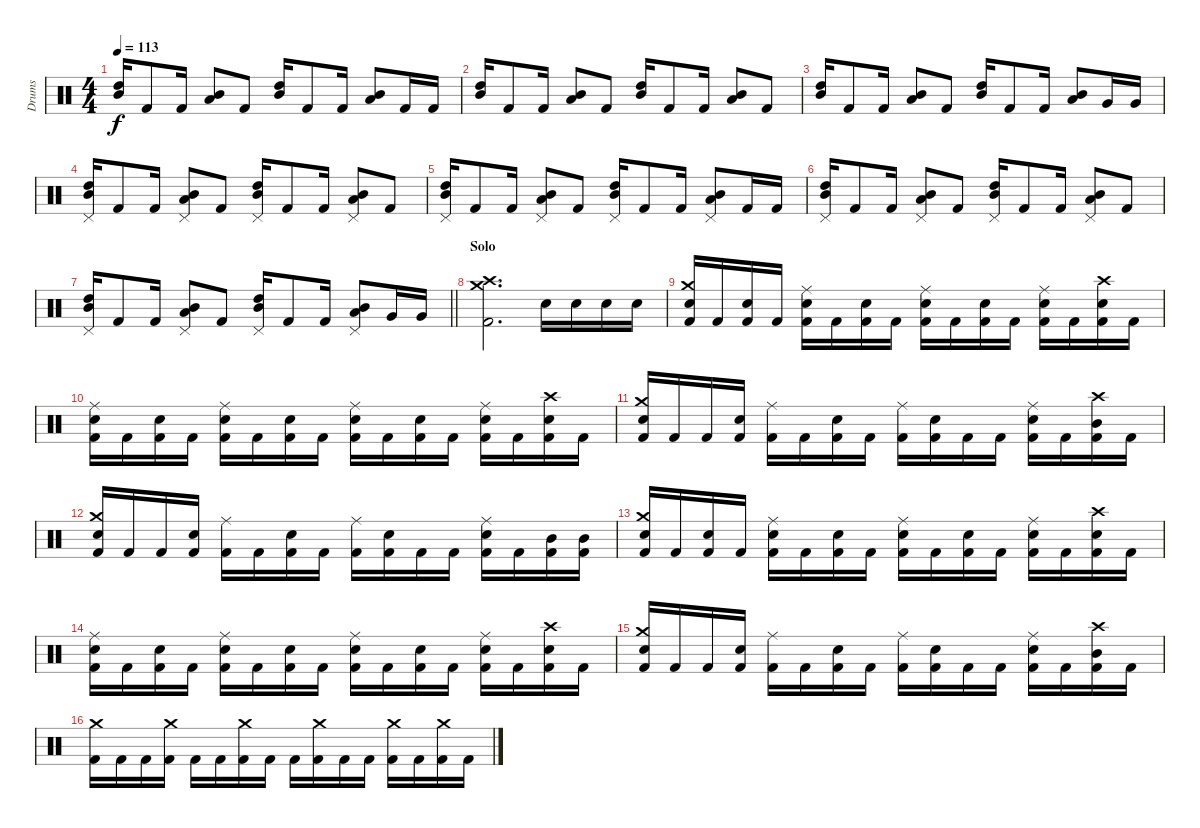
\track ("Drums" "Drums") {instrument percussion}
\staff {score}
\articulation defaults
\ts (4 4)
\tempo 113
\clef neutral
\ks c
("High Tom (hit)" "Mid Tom (hit)").16{dy f} "Kick (hit) 2".8 "Kick (hit) 2".16 ("Mid Tom (hit)" "Low Tom (hit)").8 "Kick (hit) 2".8 ("High Tom (hit)" "Mid Tom (hit)").16 "Kick (hit) 2".8 "Kick (hit) 2".16 ("Mid Tom (hit)" "Low Tom (hit)").8 "Kick (hit) 2".16 "Kick (hit) 2".16 |
("High Tom (hit)" "Mid Tom (hit)").16 "Kick (hit) 2".8 "Kick (hit) 2".16 ("Mid Tom (hit)" "Low Tom (hit)").8 "Kick (hit) 2".8 ("High Tom (hit)" "Mid Tom (hit)").16 "Kick (hit) 2".8 "Kick (hit) 2".16 ("Mid Tom (hit)" "Low Tom (hit)").8 "Kick (hit) 2".8 |
("High Tom (hit)" "Mid Tom (hit)").16 "Kick (hit) 2".8 "Kick (hit) 2".16 ("Mid Tom (hit)" "Low Tom (hit)").8 "Kick (hit) 2".8 ("High Tom (hit)" "Mid Tom (hit)").16 "Kick (hit) 2".8 "Kick (hit) 2".16 ("Mid Tom (hit)" "Low Tom (hit)").8 "Very Low Tom (hit)".16 "Very Low Tom (hit)".16 |
("High Tom (hit)" "Mid Tom (hit)" "Pedal Hi-Hat (hit)").16 "Kick (hit) 2".8 "Kick (hit) 2".16 ("Mid Tom (hit)" "Low Tom (hit)" "Pedal Hi-Hat (hit)").8 "Kick (hit) 2".8 ("High Tom (hit)" "Mid Tom (hit)" "Pedal Hi-Hat (hit)").16 "Kick (hit) 2".8 "Kick (hit) 2".16 ("Mid Tom (hit)" "Low Tom (hit)" "Pedal Hi-Hat (hit)").8 "Kick (hit) 2".8 |
("High Tom (hit)" "Mid Tom (hit)" "Pedal Hi-Hat (hit)").16 "Kick (hit) 2".8 "Kick (hit) 2".16 ("Mid Tom (hit)" "Low Tom (hit)" "Pedal Hi-Hat (hit)").8 "Kick (hit) 2".8 ("High Tom (hit)" "Mid Tom (hit)" "Pedal Hi-Hat (hit)").16 "Kick (hit) 2".8 "Kick (hit) 2".16 ("Mid Tom (hit)" "Low Tom (hit)" "Pedal Hi-Hat (hit)").8 "Kick (hit) 2".16 "Kick (hit) 2".16 |
("High Tom (hit)" "Mid Tom (hit)" "Pedal Hi-Hat (hit)").16 "Kick (hit) 2".8 "Kick (hit) 2".16 ("Mid Tom (hit)" "Low Tom (hit)" "Pedal Hi-Hat (hit)").8 "Kick (hit) 2".8 ("High Tom (hit)" "Mid Tom (hit)" "Pedal Hi-Hat (hit)").16 "Kick (hit) 2".8 "Kick (hit) 2".16 ("Mid Tom (hit)" "Low Tom (hit)" "Pedal Hi-Hat (hit)").8 "Kick (hit) 2".8 |
\barLineRight lightlight
("High Tom (hit)" "Mid Tom (hit)" "Pedal Hi-Hat (hit)").16 "Kick (hit) 2".8 "Kick (hit) 2".16 ("Mid Tom (hit)" "Low Tom (hit)" "Pedal Hi-Hat (hit)").8 "Kick (hit) 2".8 ("High Tom (hit)" "Mid Tom (hit)" "Pedal Hi-Hat (hit)").16 "Kick (hit) 2".8 "Kick (hit) 2".16 ("Mid Tom (hit)" "Low Tom (hit)" "Pedal Hi-Hat (hit)").8 "Very Low Tom (hit)".16 "Very Low Tom (hit)".16 |
\section ("" "Solo")
("Kick (hit) 2" "Crash high (hit)" "Crash medium (hit)").2{d} "Snare (hit) 2".16 "Snare (hit) 2".16 "Snare (hit) 2".16 "Snare (hit) 2".16 |
("Kick (hit) 2" "Snare (hit) 2" "Crash medium (hit)").16 "Kick (hit) 2".16 ("Kick (hit) 2" "Snare (hit) 2").16 "Kick (hit) 2".16 ("Kick (hit) 2" "Snare (hit) 2" "Ride (middle)").16 "Kick (hit) 2".16 ("Kick (hit) 2" "Snare (hit) 2").16 "Kick (hit) 2".16 ("Kick (hit) 2" "Snare (hit) 2" "Ride (middle)").16 "Kick (hit) 2".16 ("Kick (hit) 2" "Snare (hit) 2").16 "Kick (hit) 2".16 ("Kick (hit) 2" "Snare (hit) 2" "Ride (middle)").16 "Kick (hit) 2".16 ("Kick (hit) 2" "Snare (hit) 2" "Crash high (hit)").16 "Kick (hit) 2".16 |
("Kick (hit) 2" "Snare (hit) 2" "Ride (middle)").16 "Kick (hit) 2".16 ("Kick (hit) 2" "Snare (hit) 2").16 "Kick (hit) 2".16 ("Kick (hit) 2" "Snare (hit) 2" "Ride (middle)").16 "Kick (hit) 2".16 ("Kick (hit) 2" "Snare (hit) 2").16 "Kick (hit) 2".16 ("Kick (hit) 2" "Snare (hit) 2" "Ride (middle)").16 "Kick (hit) 2".16 ("Kick (hit) 2" "Snare (hit) 2").16 "Kick (hit) 2".16 ("Kick (hit) 2" "Snare (hit) 2" "Ride (middle)").16 "Kick (hit) 2".16 ("Kick (hit) 2" "Snare (hit) 2" "Crash high (hit)").16 "Kick (hit) 2".16 |
("Kick (hit) 2" "Snare (hit) 2" "Crash medium (hit)").16 "Kick (hit) 2".16 "Kick (hit) 2".16 ("Kick (hit) 2" "Snare (hit) 2").16 ("Kick (hit) 2" "Ride (middle)").16 "Kick (hit) 2".16 ("Kick (hit) 2" "Snare (hit) 2").16 "Kick (hit) 2".16 ("Kick (hit) 2" "Ride (middle)").16 ("Kick (hit) 2" "Snare (hit) 2").16 "Kick (hit) 2".16 "Kick (hit) 2".16 ("Kick (hit) 2" "Snare (hit) 2" "Ride (middle)").16 "Kick (hit) 2".16 ("Kick (hit) 2" "Mid Tom (hit)" "Crash high (hit)").16 "Kick (hit) 2".16 |
("Kick (hit) 2" "Snare (hit) 2" "Crash medium (hit)").16 "Kick (hit) 2".16 "Kick (hit) 2".16 ("Kick (hit) 2" "Snare (hit) 2").16 ("Kick (hit) 2" "Ride (middle)").16 "Kick (hit) 2".16 ("Kick (hit) 2" "Snare (hit) 2").16 "Kick (hit) 2".16 ("Kick (hit) 2" "Ride (middle)").16 ("Kick (hit) 2" "Snare (hit) 2").16 "Kick (hit) 2".16 "Kick (hit) 2".16 ("Kick (hit) 2" "Snare (hit) 2" "Ride (middle)").16 "Kick (hit) 2".16 ("Kick (hit) 2" "Mid Tom (hit)").16 ("Kick (hit) 2" "Mid Tom (hit)").16 |
("Kick (hit) 2" "Snare (hit) 2" "Crash medium (hit)").16 "Kick (hit) 2".16 ("Kick (hit) 2" "Snare (hit) 2").16 "Kick (hit) 2".16 ("Kick (hit) 2" "Snare (hit) 2" "Ride (middle)").16 "Kick (hit) 2".16 ("Kick (hit) 2" "Snare (hit) 2").16 "Kick (hit) 2".16 ("Kick (hit) 2" "Snare (hit) 2" "Ride (middle)").16 "Kick (hit) 2".16 ("Kick (hit) 2" "Snare (hit) 2").16 "Kick (hit) 2".16 ("Kick (hit) 2" "Snare (hit) 2" "Ride (middle)").16 "Kick (hit) 2".16 ("Kick (hit) 2" "Snare (hit) 2" "Crash high (hit)").16 "Kick (hit) 2".16 |
("Kick (hit) 2" "Snare (hit) 2" "Ride (middle)").16 "Kick (hit) 2".16 ("Kick (hit) 2" "Snare (hit) 2").16 "Kick (hit) 2".16 ("Kick (hit) 2" "Snare (hit) 2" "Ride (middle)").16 "Kick (hit) 2".16 ("Kick (hit) 2" "Snare (hit) 2").16 "Kick (hit) 2".16 ("Kick (hit) 2" "Snare (hit) 2" "Ride (middle)").16 "Kick (hit) 2".16 ("Kick (hit) 2" "Snare (hit) 2").16 "Kick (hit) 2".16 ("Kick (hit) 2" "Snare (hit) 2" "Ride (middle)").16 "Kick (hit) 2".16 ("Kick (hit) 2" "Snare (hit) 2" "Crash high (hit)").16 "Kick (hit) 2".16 |
("Kick (hit) 2" "Snare (hit) 2" "Crash medium (hit)").16 "Kick (hit) 2".16 "Kick (hit) 2".16 ("Kick (hit) 2" "Snare (hit) 2").16 ("Kick (hit) 2" "Ride (middle)").16 "Kick (hit) 2".16 ("Kick (hit) 2" "Snare (hit) 2").16 "Kick (hit) 2".16 ("Kick (hit) 2" "Ride (middle)").16 ("Kick (hit) 2" "Snare (hit) 2").16 "Kick (hit) 2".16 "Kick (hit) 2".16 ("Kick (hit) 2" "Snare (hit) 2" "Ride (middle)").16 "Kick (hit) 2".16 ("Kick (hit) 2" "Mid Tom (hit)" "Crash high (hit)").16 "Kick (hit) 2".16 |
("Kick (hit) 2" "Crash medium (hit)").16 "Kick (hit) 2".16 "Kick (hit) 2".16 ("Kick (hit) 2" "Crash medium (hit)").16 "Kick (hit) 2".16 "Kick (hit) 2".16 ("Kick (hit) 2" "Crash medium (hit)").16 "Kick (hit) 2".16 "Kick (hit) 2".16 ("Kick (hit) 2" "Crash medium (hit)").16 "Kick (hit) 2".16 "Kick (hit) 2".16 ("Kick (hit) 2" "Crash medium (hit)").16 "Kick (hit) 2".16 ("Kick (hit) 2" "Crash medium (hit)").16 "Kick (hit) 2".16
